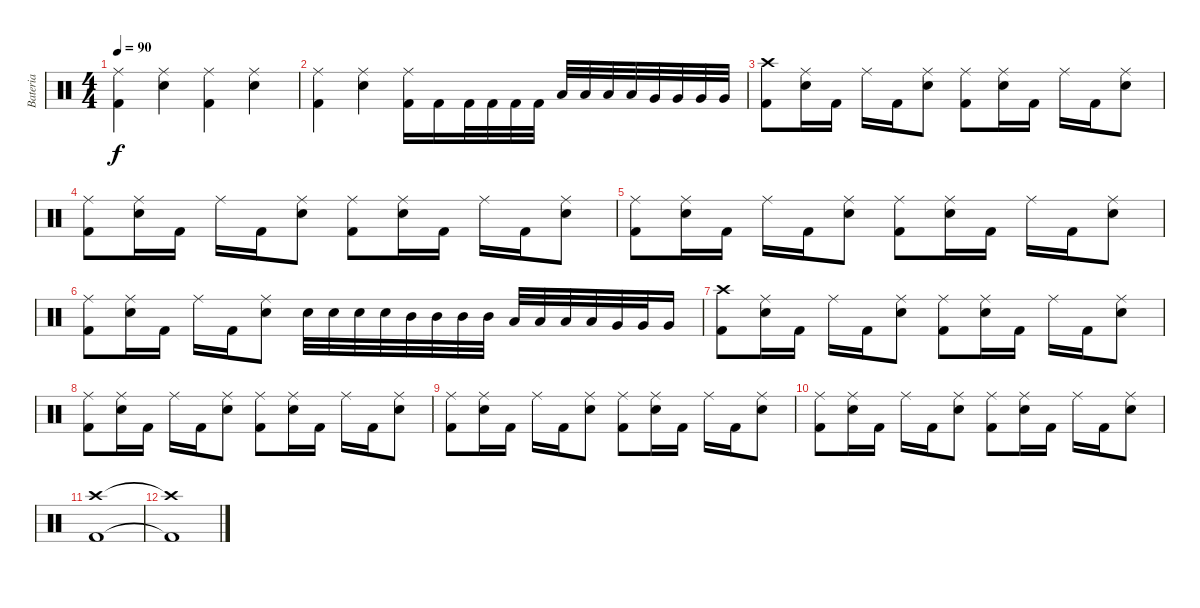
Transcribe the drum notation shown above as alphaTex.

\track ("Bateria" "Bateria") {instrument percussion}
\staff {score}
\articulation defaults
\ts (4 4)
\tempo 90
\clef neutral
\ks c
("Ride (middle)" "Kick (hit) 2").4{dy f} ("Ride (middle)" "Snare (hit) 2").4 ("Ride (middle)" "Kick (hit) 2").4 ("Ride (middle)" "Snare (hit) 2").4 |
("Ride (middle)" "Kick (hit) 2").4 ("Ride (middle)" "Snare (hit) 2").4 ("Ride (middle)" "Kick (hit) 2").16 "Kick (hit) 2".16 "Kick (hit) 2".32 "Kick (hit) 2".32 "Kick (hit) 2".32 "Kick (hit) 2".32 "Low Tom (hit)".32 "Low Tom (hit)".32 "Low Tom (hit)".32 "Low Tom (hit)".32 "Very Low Tom (hit)".32 "Very Low Tom (hit)".32 "Very Low Tom (hit)".32 "Very Low Tom (hit)".32 |
("Crash high (hit)" "Kick (hit) 2").8 ("Ride (middle)" "Snare (hit) 2").16 "Kick (hit) 2".16 "Ride (middle)".16 "Kick (hit) 2".16 ("Ride (middle)" "Snare (hit) 2").8 ("Ride (middle)" "Kick (hit) 2").8 ("Ride (middle)" "Snare (hit) 2").16 "Kick (hit) 2".16 "Ride (middle)".16 "Kick (hit) 2".16 ("Ride (middle)" "Snare (hit) 2").8 |
("Ride (middle)" "Kick (hit) 2").8 ("Ride (middle)" "Snare (hit) 2").16 "Kick (hit) 2".16 "Ride (middle)".16 "Kick (hit) 2".16 ("Ride (middle)" "Snare (hit) 2").8 ("Ride (middle)" "Kick (hit) 2").8 ("Ride (middle)" "Snare (hit) 2").16 "Kick (hit) 2".16 "Ride (middle)".16 "Kick (hit) 2".16 ("Ride (middle)" "Snare (hit) 2").8 |
("Ride (middle)" "Kick (hit) 2").8 ("Ride (middle)" "Snare (hit) 2").16 "Kick (hit) 2".16 "Ride (middle)".16 "Kick (hit) 2".16 ("Ride (middle)" "Snare (hit) 2").8 ("Ride (middle)" "Kick (hit) 2").8 ("Ride (middle)" "Snare (hit) 2").16 "Kick (hit) 2".16 "Ride (middle)".16 "Kick (hit) 2".16 ("Ride (middle)" "Snare (hit) 2").8 |
("Ride (middle)" "Kick (hit) 2").8 ("Ride (middle)" "Snare (hit) 2").16 "Kick (hit) 2".16 "Ride (middle)".16 "Kick (hit) 2".16 ("Ride (middle)" "Snare (hit) 2").8 "Snare (hit) 2".32 "Snare (hit) 2".32 "Snare (hit) 2".32 "Snare (hit) 2".32 "Mid Tom (hit)".32 "Mid Tom (hit)".32 "Mid Tom (hit)".32 "Mid Tom (hit)".32 "Low Tom (hit)".32 "Low Tom (hit)".32 "Low Tom (hit)".32 "Low Tom (hit)".32 "Very Low Tom (hit)".32 "Very Low Tom (hit)".32 "Very Low Tom (hit)".16 |
("Crash high (hit)" "Kick (hit) 2").8 ("Ride (middle)" "Snare (hit) 2").16 "Kick (hit) 2".16 "Ride (middle)".16 "Kick (hit) 2".16 ("Ride (middle)" "Snare (hit) 2").8 ("Ride (middle)" "Kick (hit) 2").8 ("Ride (middle)" "Snare (hit) 2").16 "Kick (hit) 2".16 "Ride (middle)".16 "Kick (hit) 2".16 ("Ride (middle)" "Snare (hit) 2").8 |
("Ride (middle)" "Kick (hit) 2").8 ("Ride (middle)" "Snare (hit) 2").16 "Kick (hit) 2".16 "Ride (middle)".16 "Kick (hit) 2".16 ("Ride (middle)" "Snare (hit) 2").8 ("Ride (middle)" "Kick (hit) 2").8 ("Ride (middle)" "Snare (hit) 2").16 "Kick (hit) 2".16 "Ride (middle)".16 "Kick (hit) 2".16 ("Ride (middle)" "Snare (hit) 2").8 |
("Ride (middle)" "Kick (hit) 2").8 ("Ride (middle)" "Snare (hit) 2").16 "Kick (hit) 2".16 "Ride (middle)".16 "Kick (hit) 2".16 ("Ride (middle)" "Snare (hit) 2").8 ("Ride (middle)" "Kick (hit) 2").8 ("Ride (middle)" "Snare (hit) 2").16 "Kick (hit) 2".16 "Ride (middle)".16 "Kick (hit) 2".16 ("Ride (middle)" "Snare (hit) 2").8 |
("Ride (middle)" "Kick (hit) 2").8 ("Ride (middle)" "Snare (hit) 2").16 "Kick (hit) 2".16 "Ride (middle)".16 "Kick (hit) 2".16 ("Ride (middle)" "Snare (hit) 2").8 ("Ride (middle)" "Kick (hit) 2").8 ("Ride (middle)" "Snare (hit) 2").16 "Kick (hit) 2".16 "Ride (middle)".16 "Kick (hit) 2".16 ("Ride (middle)" "Snare (hit) 2").8 |
("Crash high (hit)" "Kick (hit) 2").1 |
("Crash high (hit)"{t} "Kick (hit) 2"{t}).1
